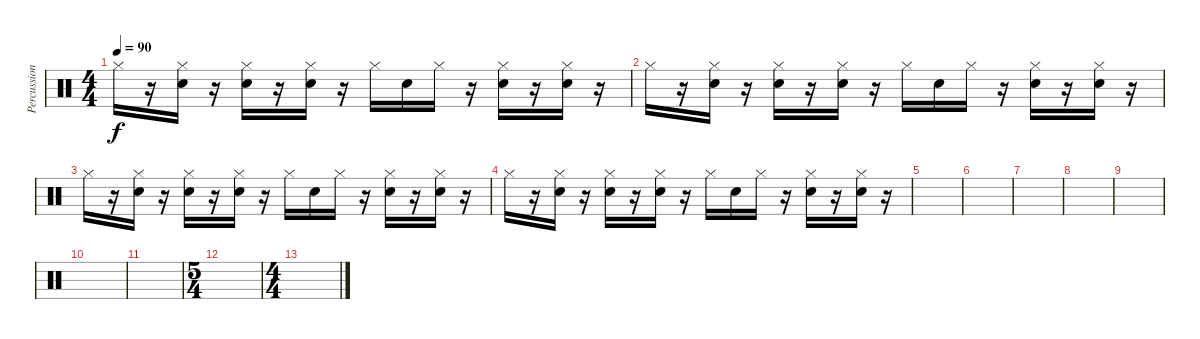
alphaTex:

\track ("Percussion" "Percussion") {instrument percussion}
\staff {score}
\articulation defaults
\ts (4 4)
\tempo 90
\clef neutral
\ks c "Hi-Hat (closed)".16{dy f}
r.16 ("Hi-Hat (closed)" "Hand Clap (hit)").16 r.16 ("Hi-Hat (closed)" "Snare (hit) 2").16 r.16 ("Hi-Hat (closed)" "Hand Clap (hit)").16 r.16 "Hi-Hat (closed)".16 "Hand Clap (hit)".16 "Hi-Hat (closed)".16 r.16 ("Hi-Hat (closed)" "Snare (hit) 2").16 r.16 ("Hi-Hat (closed)" "Hand Clap (hit)").16 r.16 |
"Hi-Hat (closed)".16 r.16 ("Hi-Hat (closed)" "Hand Clap (hit)").16 r.16 ("Hi-Hat (closed)" "Snare (hit) 2").16 r.16 ("Hi-Hat (closed)" "Hand Clap (hit)").16 r.16 "Hi-Hat (closed)".16 "Hand Clap (hit)".16 "Hi-Hat (closed)".16 r.16 ("Hi-Hat (closed)" "Snare (hit) 2").16 r.16 ("Hi-Hat (closed)" "Hand Clap (hit)").16 r.16 |
"Hi-Hat (closed)".16 r.16 ("Hi-Hat (closed)" "Hand Clap (hit)").16 r.16 ("Hi-Hat (closed)" "Snare (hit) 2").16 r.16 ("Hi-Hat (closed)" "Hand Clap (hit)").16 r.16 "Hi-Hat (closed)".16 "Hand Clap (hit)".16 "Hi-Hat (closed)".16 r.16 ("Hi-Hat (closed)" "Snare (hit) 2").16 r.16 ("Hi-Hat (closed)" "Hand Clap (hit)").16 r.16 |
"Hi-Hat (closed)".16 r.16 ("Hi-Hat (closed)" "Hand Clap (hit)").16 r.16 ("Hi-Hat (closed)" "Snare (hit) 2").16 r.16 ("Hi-Hat (closed)" "Hand Clap (hit)").16 r.16 "Hi-Hat (closed)".16 "Hand Clap (hit)".16 "Hi-Hat (closed)".16 r.16 ("Hi-Hat (closed)" "Snare (hit) 2").16 r.16 ("Hi-Hat (closed)" "Hand Clap (hit)").16 r.16 |
|
|
|
|
|
|
|
\ts (5 4)
|
\ts (4 4)
